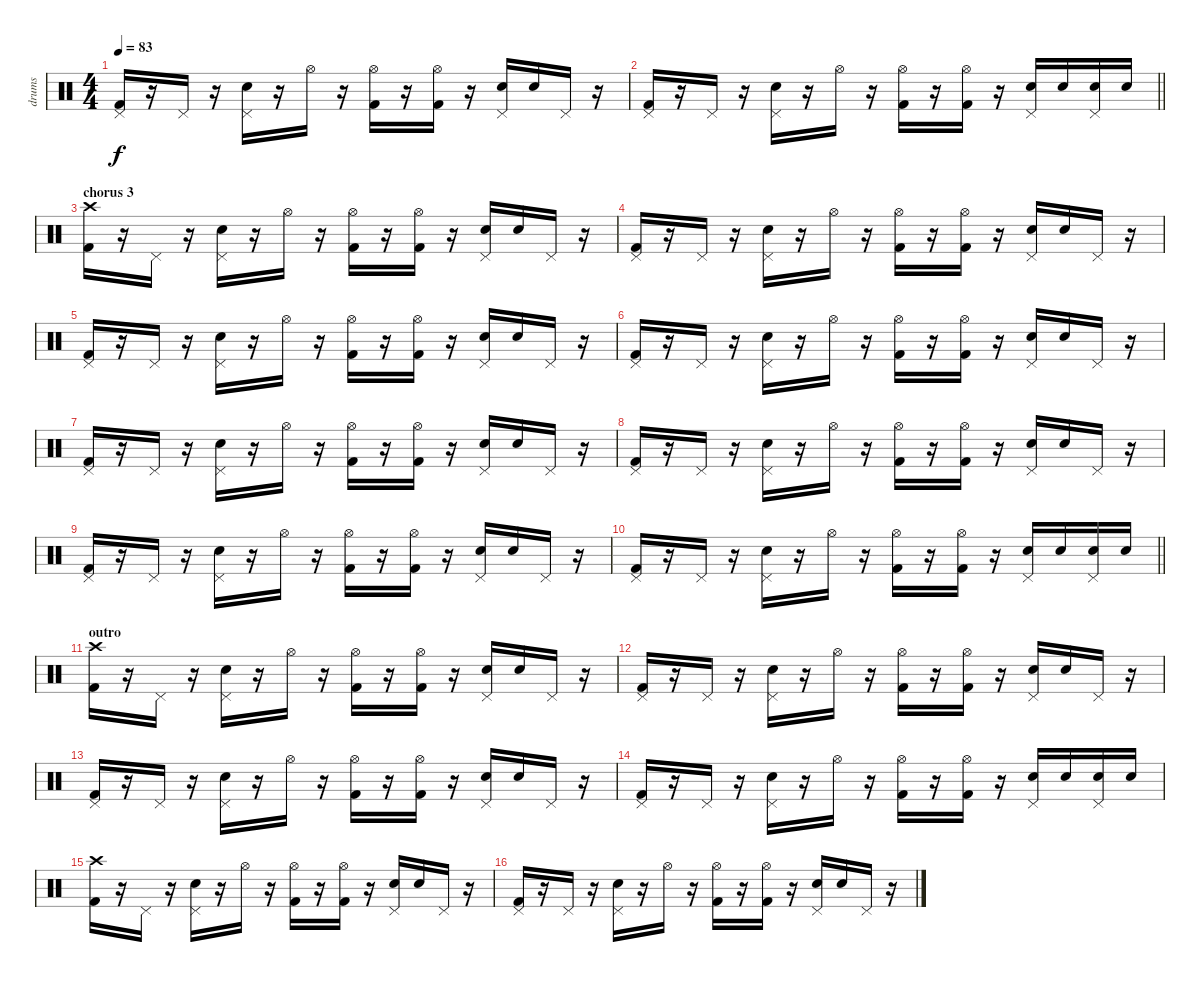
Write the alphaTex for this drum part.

\track ("drums" "drums") {instrument percussion}
\staff {score}
\articulation defaults
\ts (4 4)
\tempo 83
\clef neutral
\ks c
("Kick (hit) 2" "Pedal Hi-Hat (hit)").16{dy f} r.16 "Pedal Hi-Hat (hit)".16 r.16 ("Electric Snare (hit)" "Pedal Hi-Hat (hit)").16 r.16 "Hi-Hat (open)".16 r.16 ("Kick (hit) 2" "Hi-Hat (open)").16 r.16 ("Kick (hit) 2" "Hi-Hat (open)").16 r.16 ("Electric Snare (hit)" "Pedal Hi-Hat (hit)").16 "Electric Snare (hit)".16 "Pedal Hi-Hat (hit)".16 r.16 |
\barLineRight lightlight
("Kick (hit) 2" "Pedal Hi-Hat (hit)").16 r.16 "Pedal Hi-Hat (hit)".16 r.16 ("Electric Snare (hit)" "Pedal Hi-Hat (hit)").16 r.16 "Hi-Hat (open)".16 r.16 ("Kick (hit) 2" "Hi-Hat (open)").16 r.16 ("Kick (hit) 2" "Hi-Hat (open)").16 r.16 ("Electric Snare (hit)" "Pedal Hi-Hat (hit)").16 "Electric Snare (hit)".16 ("Electric Snare (hit)" "Pedal Hi-Hat (hit)").16 "Electric Snare (hit)".16 |
\section ("" "chorus 3")
("Kick (hit) 2" "Crash high (hit)").16 r.16 "Pedal Hi-Hat (hit)".16 r.16 ("Electric Snare (hit)" "Pedal Hi-Hat (hit)").16 r.16 "Hi-Hat (open)".16 r.16 ("Kick (hit) 2" "Hi-Hat (open)").16 r.16 ("Kick (hit) 2" "Hi-Hat (open)").16 r.16 ("Electric Snare (hit)" "Pedal Hi-Hat (hit)").16 "Electric Snare (hit)".16 "Pedal Hi-Hat (hit)".16 r.16 |
("Kick (hit) 2" "Pedal Hi-Hat (hit)").16 r.16 "Pedal Hi-Hat (hit)".16 r.16 ("Electric Snare (hit)" "Pedal Hi-Hat (hit)").16 r.16 "Hi-Hat (open)".16 r.16 ("Kick (hit) 2" "Hi-Hat (open)").16 r.16 ("Kick (hit) 2" "Hi-Hat (open)").16 r.16 ("Electric Snare (hit)" "Pedal Hi-Hat (hit)").16 "Electric Snare (hit)".16 "Pedal Hi-Hat (hit)".16 r.16 |
("Kick (hit) 2" "Pedal Hi-Hat (hit)").16 r.16 "Pedal Hi-Hat (hit)".16 r.16 ("Electric Snare (hit)" "Pedal Hi-Hat (hit)").16 r.16 "Hi-Hat (open)".16 r.16 ("Kick (hit) 2" "Hi-Hat (open)").16 r.16 ("Kick (hit) 2" "Hi-Hat (open)").16 r.16 ("Electric Snare (hit)" "Pedal Hi-Hat (hit)").16 "Electric Snare (hit)".16 "Pedal Hi-Hat (hit)".16 r.16 |
("Kick (hit) 2" "Pedal Hi-Hat (hit)").16 r.16 "Pedal Hi-Hat (hit)".16 r.16 ("Electric Snare (hit)" "Pedal Hi-Hat (hit)").16 r.16 "Hi-Hat (open)".16 r.16 ("Kick (hit) 2" "Hi-Hat (open)").16 r.16 ("Kick (hit) 2" "Hi-Hat (open)").16 r.16 ("Electric Snare (hit)" "Pedal Hi-Hat (hit)").16 "Electric Snare (hit)".16 "Pedal Hi-Hat (hit)".16 r.16 |
("Kick (hit) 2" "Pedal Hi-Hat (hit)").16 r.16 "Pedal Hi-Hat (hit)".16 r.16 ("Electric Snare (hit)" "Pedal Hi-Hat (hit)").16 r.16 "Hi-Hat (open)".16 r.16 ("Kick (hit) 2" "Hi-Hat (open)").16 r.16 ("Kick (hit) 2" "Hi-Hat (open)").16 r.16 ("Electric Snare (hit)" "Pedal Hi-Hat (hit)").16 "Electric Snare (hit)".16 "Pedal Hi-Hat (hit)".16 r.16 |
("Kick (hit) 2" "Pedal Hi-Hat (hit)").16 r.16 "Pedal Hi-Hat (hit)".16 r.16 ("Electric Snare (hit)" "Pedal Hi-Hat (hit)").16 r.16 "Hi-Hat (open)".16 r.16 ("Kick (hit) 2" "Hi-Hat (open)").16 r.16 ("Kick (hit) 2" "Hi-Hat (open)").16 r.16 ("Electric Snare (hit)" "Pedal Hi-Hat (hit)").16 "Electric Snare (hit)".16 "Pedal Hi-Hat (hit)".16 r.16 |
("Kick (hit) 2" "Pedal Hi-Hat (hit)").16 r.16 "Pedal Hi-Hat (hit)".16 r.16 ("Electric Snare (hit)" "Pedal Hi-Hat (hit)").16 r.16 "Hi-Hat (open)".16 r.16 ("Kick (hit) 2" "Hi-Hat (open)").16 r.16 ("Kick (hit) 2" "Hi-Hat (open)").16 r.16 ("Electric Snare (hit)" "Pedal Hi-Hat (hit)").16 "Electric Snare (hit)".16 "Pedal Hi-Hat (hit)".16 r.16 |
\barLineRight lightlight
("Kick (hit) 2" "Pedal Hi-Hat (hit)").16 r.16 "Pedal Hi-Hat (hit)".16 r.16 ("Electric Snare (hit)" "Pedal Hi-Hat (hit)").16 r.16 "Hi-Hat (open)".16 r.16 ("Kick (hit) 2" "Hi-Hat (open)").16 r.16 ("Kick (hit) 2" "Hi-Hat (open)").16 r.16 ("Electric Snare (hit)" "Pedal Hi-Hat (hit)").16 "Electric Snare (hit)".16 ("Electric Snare (hit)" "Pedal Hi-Hat (hit)").16 "Electric Snare (hit)".16 |
\section ("" "outro")
("Kick (hit) 2" "Crash high (hit)").16 r.16 "Pedal Hi-Hat (hit)".16 r.16 ("Electric Snare (hit)" "Pedal Hi-Hat (hit)").16 r.16 "Hi-Hat (open)".16 r.16 ("Kick (hit) 2" "Hi-Hat (open)").16 r.16 ("Kick (hit) 2" "Hi-Hat (open)").16 r.16 ("Electric Snare (hit)" "Pedal Hi-Hat (hit)").16 "Electric Snare (hit)".16 "Pedal Hi-Hat (hit)".16 r.16 |
("Kick (hit) 2" "Pedal Hi-Hat (hit)").16 r.16 "Pedal Hi-Hat (hit)".16 r.16 ("Electric Snare (hit)" "Pedal Hi-Hat (hit)").16 r.16 "Hi-Hat (open)".16 r.16 ("Kick (hit) 2" "Hi-Hat (open)").16 r.16 ("Kick (hit) 2" "Hi-Hat (open)").16 r.16 ("Electric Snare (hit)" "Pedal Hi-Hat (hit)").16 "Electric Snare (hit)".16 "Pedal Hi-Hat (hit)".16 r.16 |
("Kick (hit) 2" "Pedal Hi-Hat (hit)").16 r.16 "Pedal Hi-Hat (hit)".16 r.16 ("Electric Snare (hit)" "Pedal Hi-Hat (hit)").16 r.16 "Hi-Hat (open)".16 r.16 ("Kick (hit) 2" "Hi-Hat (open)").16 r.16 ("Kick (hit) 2" "Hi-Hat (open)").16 r.16 ("Electric Snare (hit)" "Pedal Hi-Hat (hit)").16 "Electric Snare (hit)".16 "Pedal Hi-Hat (hit)".16 r.16 |
("Kick (hit) 2" "Pedal Hi-Hat (hit)").16 r.16 "Pedal Hi-Hat (hit)".16 r.16 ("Electric Snare (hit)" "Pedal Hi-Hat (hit)").16 r.16 "Hi-Hat (open)".16 r.16 ("Kick (hit) 2" "Hi-Hat (open)").16 r.16 ("Kick (hit) 2" "Hi-Hat (open)").16 r.16 ("Electric Snare (hit)" "Pedal Hi-Hat (hit)").16 "Electric Snare (hit)".16 ("Electric Snare (hit)" "Pedal Hi-Hat (hit)").16 "Electric Snare (hit)".16 |
("Kick (hit) 2" "Crash high (hit)").16 r.16 "Pedal Hi-Hat (hit)".16 r.16 ("Electric Snare (hit)" "Pedal Hi-Hat (hit)").16 r.16 "Hi-Hat (open)".16 r.16 ("Kick (hit) 2" "Hi-Hat (open)").16 r.16 ("Kick (hit) 2" "Hi-Hat (open)").16 r.16 ("Electric Snare (hit)" "Pedal Hi-Hat (hit)").16 "Electric Snare (hit)".16 "Pedal Hi-Hat (hit)".16 r.16 |
("Kick (hit) 2" "Pedal Hi-Hat (hit)").16 r.16 "Pedal Hi-Hat (hit)".16 r.16 ("Electric Snare (hit)" "Pedal Hi-Hat (hit)").16 r.16 "Hi-Hat (open)".16 r.16 ("Kick (hit) 2" "Hi-Hat (open)").16 r.16 ("Kick (hit) 2" "Hi-Hat (open)").16 r.16 ("Electric Snare (hit)" "Pedal Hi-Hat (hit)").16 "Electric Snare (hit)".16 "Pedal Hi-Hat (hit)".16 r.16
